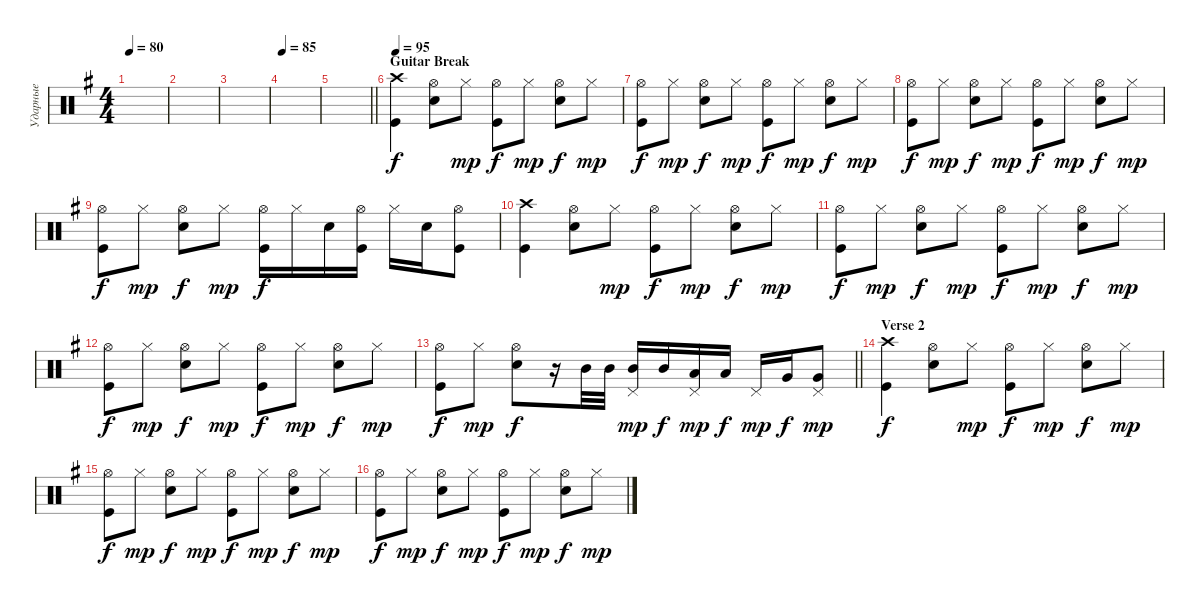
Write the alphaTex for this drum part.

\track ("Ударные" "Ударные") {instrument percussion}
\staff {score}
\articulation defaults
\ts (4 4)
\tempo 80
\clef neutral
\ks eminor
|
|
|
\tempo 85
|
\barLineRight lightlight
|
\section ("" "Guitar Break")
\tempo 95
("Kick (hit)" "Crash high (hit)").4 ("Snare (hit) 2" "Hi-Hat (open)").8 "Hi-Hat (closed)".8{dy mp} ("Kick (hit)" "Hi-Hat (open)").8{dy f} "Hi-Hat (closed)".8{dy mp} ("Snare (hit) 2" "Hi-Hat (open)").8{dy f} "Hi-Hat (closed)".8{dy mp} |
("Kick (hit)" "Hi-Hat (open)").8{dy f} "Hi-Hat (closed)".8{dy mp} ("Snare (hit) 2" "Hi-Hat (open)").8{dy f} "Hi-Hat (closed)".8{dy mp} ("Kick (hit)" "Hi-Hat (open)").8{dy f} "Hi-Hat (closed)".8{dy mp} ("Snare (hit) 2" "Hi-Hat (open)").8{dy f} "Hi-Hat (closed)".8{dy mp} |
("Kick (hit)" "Hi-Hat (open)").8{dy f} "Hi-Hat (closed)".8{dy mp} ("Snare (hit) 2" "Hi-Hat (open)").8{dy f} "Hi-Hat (closed)".8{dy mp} ("Kick (hit)" "Hi-Hat (open)").8{dy f} "Hi-Hat (closed)".8{dy mp} ("Snare (hit) 2" "Hi-Hat (open)").8{dy f} "Hi-Hat (closed)".8{dy mp} |
("Kick (hit)" "Hi-Hat (open)").8{dy f} "Hi-Hat (closed)".8{dy mp} ("Snare (hit) 2" "Hi-Hat (open)").8{dy f} "Hi-Hat (closed)".8{dy mp} ("Kick (hit)" "Hi-Hat (open)").16{dy f} "Hi-Hat (closed)".16 "Snare (hit) 2".16 ("Kick (hit)" "Hi-Hat (open)").16 "Hi-Hat (closed)".16 "Snare (hit) 2".16 ("Kick (hit)" "Hi-Hat (open)").8 |
("Kick (hit)" "Crash high (hit)").4 ("Snare (hit) 2" "Hi-Hat (open)").8 "Hi-Hat (closed)".8{dy mp} ("Kick (hit)" "Hi-Hat (open)").8{dy f} "Hi-Hat (closed)".8{dy mp} ("Snare (hit) 2" "Hi-Hat (open)").8{dy f} "Hi-Hat (closed)".8{dy mp} |
("Kick (hit)" "Hi-Hat (open)").8{dy f} "Hi-Hat (closed)".8{dy mp} ("Snare (hit) 2" "Hi-Hat (open)").8{dy f} "Hi-Hat (closed)".8{dy mp} ("Kick (hit)" "Hi-Hat (open)").8{dy f} "Hi-Hat (closed)".8{dy mp} ("Snare (hit) 2" "Hi-Hat (open)").8{dy f} "Hi-Hat (closed)".8{dy mp} |
("Kick (hit)" "Hi-Hat (open)").8{dy f} "Hi-Hat (closed)".8{dy mp} ("Snare (hit) 2" "Hi-Hat (open)").8{dy f} "Hi-Hat (closed)".8{dy mp} ("Kick (hit)" "Hi-Hat (open)").8{dy f} "Hi-Hat (closed)".8{dy mp} ("Snare (hit) 2" "Hi-Hat (open)").8{dy f} "Hi-Hat (closed)".8{dy mp} |
\barLineRight lightlight
("Kick (hit)" "Hi-Hat (open)").8{dy f} "Hi-Hat (closed)".8{dy mp} ("Snare (hit) 2" "Hi-Hat (open)").8{dy f} r.16 "Mid Tom (hit)".32 "Mid Tom (hit)".32 ("Mid Tom (hit)" "Pedal Hi-Hat (hit)").16{dy mp} "Mid Tom (hit)".16{dy f} ("Low Tom (hit)" "Pedal Hi-Hat (hit)").16{dy mp} "Low Tom (hit)".16{dy f} "Pedal Hi-Hat (hit)".16{dy mp} "Very Low Tom (hit)".16{dy f} ("Very Low Tom (hit)" "Pedal Hi-Hat (hit)").8{dy mp} |
\section ("" "Verse 2")
("Kick (hit)" "Crash high (hit)").4{dy f} ("Snare (hit) 2" "Hi-Hat (open)").8 "Hi-Hat (closed)".8{dy mp} ("Kick (hit)" "Hi-Hat (open)").8{dy f} "Hi-Hat (closed)".8{dy mp} ("Snare (hit) 2" "Hi-Hat (open)").8{dy f} "Hi-Hat (closed)".8{dy mp} |
("Kick (hit)" "Hi-Hat (open)").8{dy f} "Hi-Hat (closed)".8{dy mp} ("Snare (hit) 2" "Hi-Hat (open)").8{dy f} "Hi-Hat (closed)".8{dy mp} ("Kick (hit)" "Hi-Hat (open)").8{dy f} "Hi-Hat (closed)".8{dy mp} ("Snare (hit) 2" "Hi-Hat (open)").8{dy f} "Hi-Hat (closed)".8{dy mp} |
("Kick (hit)" "Hi-Hat (open)").8{dy f} "Hi-Hat (closed)".8{dy mp} ("Snare (hit) 2" "Hi-Hat (open)").8{dy f} "Hi-Hat (closed)".8{dy mp} ("Kick (hit)" "Hi-Hat (open)").8{dy f} "Hi-Hat (closed)".8{dy mp} ("Snare (hit) 2" "Hi-Hat (open)").8{dy f} "Hi-Hat (closed)".8{dy mp}
